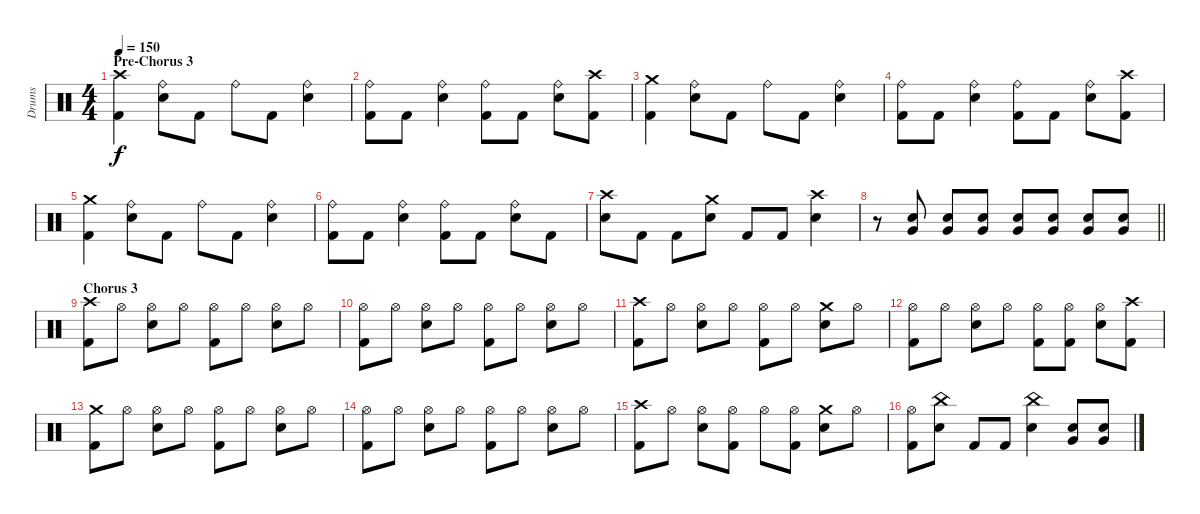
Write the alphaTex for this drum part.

\track ("Drums" "Drums") {instrument percussion}
\staff {score}
\articulation defaults
\ts (4 4)
\section ("" "Pre-Chorus 3")
\tempo 150
\clef neutral
\ks c
("Crash high (hit)" "Kick (hit) 2").4{dy f} ("Ride (bell)" "Electric Snare (hit)").8 "Kick (hit) 2".8 "Ride (bell)".8 "Kick (hit) 2".8 ("Ride (bell)" "Electric Snare (hit)").4 |
("Ride (bell)" "Kick (hit) 2").8 "Kick (hit) 2".8 ("Ride (bell)" "Electric Snare (hit)").4 ("Ride (bell)" "Kick (hit) 2").8 "Kick (hit) 2".8 ("Ride (bell)" "Electric Snare (hit)").8 ("Crash high (hit)" "Kick (hit) 2").8 |
("Crash medium (hit)" "Kick (hit) 2").4 ("Ride (bell)" "Electric Snare (hit)").8 "Kick (hit) 2".8 "Ride (bell)".8 "Kick (hit) 2".8 ("Ride (bell)" "Electric Snare (hit)").4 |
("Ride (bell)" "Kick (hit) 2").8 "Kick (hit) 2".8 ("Ride (bell)" "Electric Snare (hit)").4 ("Ride (bell)" "Kick (hit) 2").8 "Kick (hit) 2".8 ("Ride (bell)" "Electric Snare (hit)").8 ("Crash high (hit)" "Kick (hit) 2").8 |
("Crash medium (hit)" "Kick (hit) 2").4 ("Ride (bell)" "Electric Snare (hit)").8 "Kick (hit) 2".8 "Ride (bell)".8 "Kick (hit) 2".8 ("Ride (bell)" "Electric Snare (hit)").4 |
("Ride (bell)" "Kick (hit) 2").8 "Kick (hit) 2".8 ("Ride (bell)" "Electric Snare (hit)").4 ("Ride (bell)" "Kick (hit) 2").8 "Kick (hit) 2".8 ("Ride (bell)" "Electric Snare (hit)").8 "Kick (hit) 2".8 |
("Crash high (hit)" "Electric Snare (hit)").8 "Kick (hit) 2".8 "Kick (hit) 2".8 ("Crash medium (hit)" "Electric Snare (hit)").8 "Kick (hit) 2".8 "Kick (hit) 2".8 ("Crash high (hit)" "Electric Snare (hit)").4 |
\barLineRight lightlight
r.8{volume 9} ("Very Low Tom (hit)" "Electric Snare (hit)").8{volume 13} ("Very Low Tom (hit)" "Electric Snare (hit)").8 ("Very Low Tom (hit)" "Electric Snare (hit)").8 ("Very Low Tom (hit)" "Electric Snare (hit)").8 ("Very Low Tom (hit)" "Electric Snare (hit)").8 ("Very Low Tom (hit)" "Electric Snare (hit)").8 ("Very Low Tom (hit)" "Electric Snare (hit)").8 |
\section ("" "Chorus 3")
("Crash high (hit)" "Kick (hit) 2").8 "Hi-Hat (open)".8 ("Hi-Hat (open)" "Electric Snare (hit)").8 "Hi-Hat (open)".8 ("Hi-Hat (open)" "Kick (hit) 2").8 "Hi-Hat (open)".8 ("Hi-Hat (open)" "Electric Snare (hit)").8 "Hi-Hat (open)".8 |
("Hi-Hat (open)" "Kick (hit) 2").8 "Hi-Hat (open)".8 ("Hi-Hat (open)" "Electric Snare (hit)").8 "Hi-Hat (open)".8 ("Hi-Hat (open)" "Kick (hit) 2").8 "Hi-Hat (open)".8 ("Hi-Hat (open)" "Electric Snare (hit)").8 "Hi-Hat (open)".8 |
("Crash high (hit)" "Kick (hit) 2").8 "Hi-Hat (open)".8 ("Hi-Hat (open)" "Electric Snare (hit)").8 "Hi-Hat (open)".8 ("Hi-Hat (open)" "Kick (hit) 2").8 "Hi-Hat (open)".8 ("Crash medium (hit)" "Electric Snare (hit)").8 "Hi-Hat (open)".8 |
("Hi-Hat (open)" "Kick (hit) 2").8 "Hi-Hat (open)".8 ("Hi-Hat (open)" "Electric Snare (hit)").8 "Hi-Hat (open)".8 ("Hi-Hat (open)" "Kick (hit) 2").8 ("Hi-Hat (open)" "Kick (hit) 2").8 ("Hi-Hat (open)" "Electric Snare (hit)").8 ("Crash high (hit)" "Kick (hit) 2").8 |
("Crash medium (hit)" "Kick (hit) 2").8 "Hi-Hat (open)".8 ("Hi-Hat (open)" "Electric Snare (hit)").8 "Hi-Hat (open)".8 ("Hi-Hat (open)" "Kick (hit) 2").8 "Hi-Hat (open)".8 ("Hi-Hat (open)" "Electric Snare (hit)").8 "Hi-Hat (open)".8 |
("Hi-Hat (open)" "Kick (hit) 2").8 "Hi-Hat (open)".8 ("Hi-Hat (open)" "Electric Snare (hit)").8 "Hi-Hat (open)".8 ("Hi-Hat (open)" "Kick (hit) 2").8 "Hi-Hat (open)".8 ("Hi-Hat (open)" "Electric Snare (hit)").8 "Hi-Hat (open)".8 |
("Crash high (hit)" "Kick (hit) 2").8 "Hi-Hat (open)".8 ("Hi-Hat (open)" "Electric Snare (hit)").8 ("Hi-Hat (open)" "Kick (hit) 2").8 "Hi-Hat (open)".8 ("Hi-Hat (open)" "Kick (hit) 2").8 ("Crash medium (hit)" "Electric Snare (hit)").8 "Hi-Hat (open)".8 |
("Hi-Hat (open)" "Kick (hit) 2").8 ("China (hit)" "Electric Snare (hit)").8 "Kick (hit) 2".8 "Kick (hit) 2".8 ("China (hit)" "Electric Snare (hit)").4 ("Very Low Tom (hit)" "Electric Snare (hit)").8 ("Very Low Tom (hit)" "Electric Snare (hit)").8
